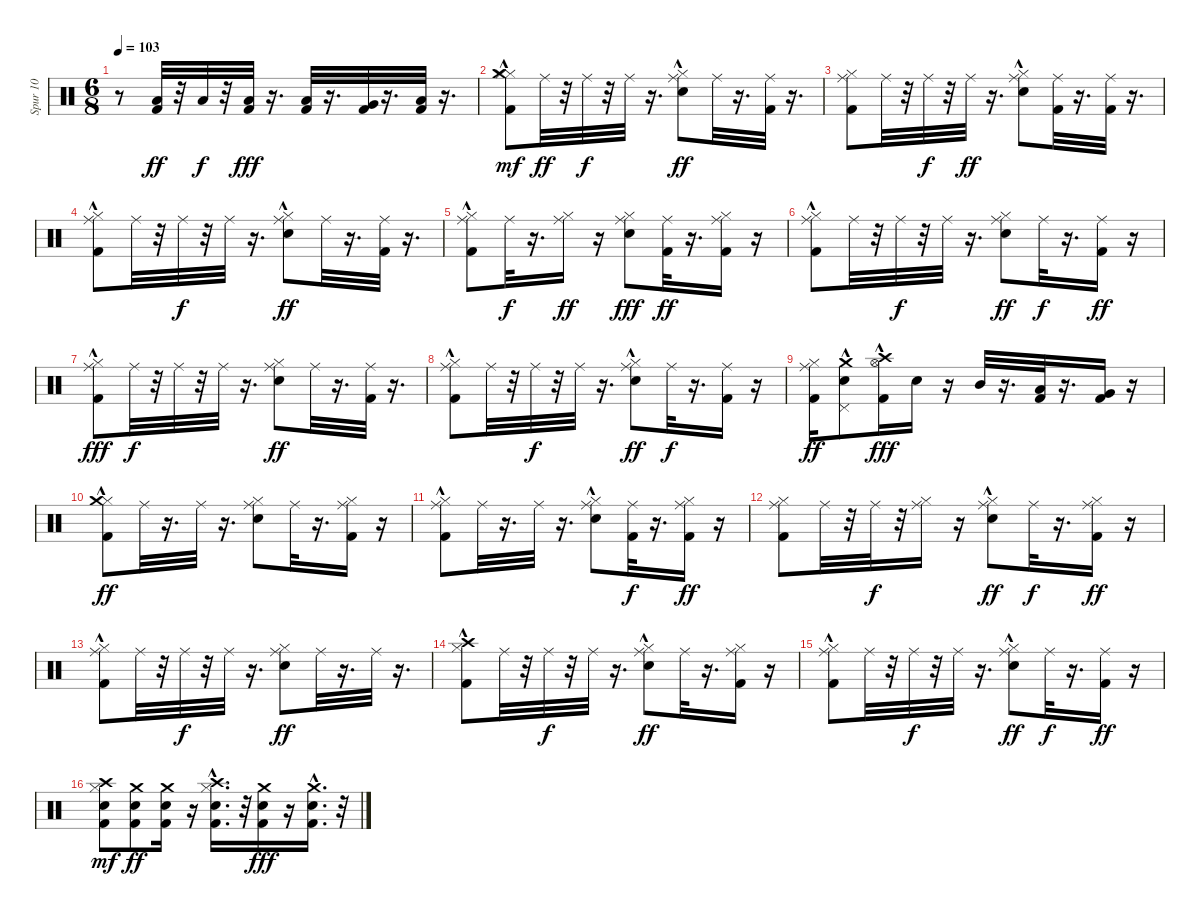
\track ("Spur 10" "Spur 10") {instrument percussion}
\staff {score}
\articulation defaults
\ts (6 8)
\tempo 103
\clef neutral
\ks c
r.8{dy ff} ("Kick (hit) 2" "Low Tom (hit)").32 r.32 "Low Tom (hit)".32{dy f} r.32 ("Kick (hit) 2" "Low Tom (hit)").32{dy fff} r.16{d} ("Kick (hit) 2" "Low Tom (hit)").32 r.16{d} ("Kick (hit) 2" "Very Low Tom (hit)").32 r.16{d} ("Kick (hit) 2" "Low Floor Tom (hit)").32 r.16{d} |
("Kick (hit) 2"{hac} "Hi-Hat (closed)" "Hi-Hat (closed)" "Crash medium (hit)").8{dy mf} "Ride (middle)".32{dy ff} r.32 "Ride (middle)".32{dy f} r.32 "Ride (middle)".32 r.16{d} ("Snare (hit) 2"{hac} "Hi-Hat (closed)" "Ride (middle)").8{dy ff} "Ride (middle)".32 r.16{d} ("Kick (hit) 2" "Ride (middle)").32 r.16{d} |
("Kick (hit) 2" "Hi-Hat (closed)" "Ride (middle)").8 "Ride (middle)".32 r.32 "Ride (middle)".32{dy f} r.32 "Ride (middle)".32{dy ff} r.16{d} ("Snare (hit) 2"{hac} "Hi-Hat (closed)" "Ride (middle)").8 ("Kick (hit) 2" "Ride (middle)").32 r.16{d} ("Kick (hit) 2" "Ride (middle)").32 r.16{d} |
("Kick (hit) 2"{hac} "Hi-Hat (closed)"{hac} "Ride (middle)").8 "Ride (middle)".32 r.32 "Ride (middle)".32{dy f} r.32 "Ride (middle)".32 r.16{d} ("Snare (hit) 2" "Hi-Hat (closed)"{hac} "Ride (middle)").8{dy ff} "Ride (middle)".32 r.16{d} ("Kick (hit) 2" "Ride (middle)").32 r.16{d} |
("Kick (hit) 2"{hac} "Hi-Hat (closed)" "Ride (middle)").8 "Ride (middle)".32{dy f} r.16{d} ("Hi-Hat (closed)" "Ride (middle)").16{dy ff} r.16 ("Snare (hit) 2" "Hi-Hat (closed)" "Ride (middle)").8{dy fff} ("Kick (hit) 2" "Ride (middle)").32{dy ff} r.16{d} ("Kick (hit) 2" "Hi-Hat (closed)" "Ride (middle)").16 r.16 |
("Kick (hit) 2"{hac} "Hi-Hat (closed)" "Ride (middle)").8 "Ride (middle)".32 r.32 "Ride (middle)".32{dy f} r.32 "Ride (middle)".32 r.16{d} ("Snare (hit) 2" "Hi-Hat (closed)" "Ride (middle)").8{dy ff} "Ride (middle)".32{dy f} r.16{d} ("Kick (hit) 2" "Ride (middle)").16{dy ff} r.16 |
("Kick (hit) 2"{hac} "Hi-Hat (closed)"{hac} "Ride (middle)").8{dy fff} "Ride (middle)".32{dy f} r.32 "Ride (middle)".32 r.32 "Ride (middle)".32 r.16{d} ("Snare (hit) 2" "Hi-Hat (closed)" "Ride (middle)").8{dy ff} "Ride (middle)".32 r.16{d} ("Kick (hit) 2" "Ride (middle)").32 r.16{d} |
("Kick (hit) 2"{hac} "Hi-Hat (closed)"{hac} "Ride (middle)").8 "Ride (middle)".32 r.32 "Ride (middle)".32{dy f} r.32 "Ride (middle)".32 r.16{d} ("Snare (hit) 2"{hac} "Hi-Hat (closed)" "Ride (middle)").8{dy ff} "Ride (middle)".32{dy f} r.16{d} ("Kick (hit) 2" "Ride (middle)").16 r.16 |
("Kick (hit) 2" "Hi-Hat (closed)" "Ride (middle)").16{dy ff} ("Snare (hit) 2" "Pedal Hi-Hat (hit)" "Crash medium (hit)"{hac}).8 ("Kick (hit) 2"{hac} "Hi-Hat (open)" "Crash high (hit)"{hac}).16{dy fff} "Snare (hit) 2".16 r.16 "Mid Tom (hit)".32 r.16{d} ("Kick (hit) 2" "Low Tom (hit)").32 r.16{d} ("Kick (hit) 2" "Very Low Tom (hit)").16 r.16 |
("Kick (hit) 2"{hac} "Hi-Hat (closed)" "Crash medium (hit)").8{dy ff} "Ride (middle)".32 r.16{d} "Ride (middle)".32 r.16{d} ("Snare (hit) 2" "Hi-Hat (closed)" "Ride (middle)").8 "Ride (middle)".32 r.16{d} ("Kick (hit) 2" "Hi-Hat (closed)" "Ride (middle)").16 r.16 |
("Kick (hit) 2"{hac} "Hi-Hat (closed)" "Ride (middle)").8 "Ride (middle)".32 r.16{d} "Ride (middle)".32 r.16{d} ("Snare (hit) 2"{hac} "Hi-Hat (closed)" "Ride (middle)").8 ("Kick (hit) 2" "Ride (middle)").32{dy f} r.16{d} ("Kick (hit) 2" "Hi-Hat (closed)" "Ride (middle)").16{dy ff} r.16 |
("Kick (hit) 2" "Hi-Hat (closed)" "Ride (middle)").8 "Ride (middle)".32 r.32 "Ride (middle)".32{dy f} r.32 ("Hi-Hat (closed)" "Ride (middle)").16 r.16 ("Snare (hit) 2"{hac} "Hi-Hat (closed)" "Ride (middle)").8{dy ff} "Ride (middle)".32{dy f} r.16{d} ("Kick (hit) 2" "Hi-Hat (closed)" "Ride (middle)").16{dy ff} r.16 |
("Kick (hit) 2"{hac} "Hi-Hat (closed)" "Ride (middle)").8 "Ride (middle)".32 r.32 "Ride (middle)".32{dy f} r.32 "Ride (middle)".32 r.16{d} ("Snare (hit) 2" "Hi-Hat (closed)" "Ride (middle)").8{dy ff} "Ride (middle)".32 r.16{d} "Ride (middle)".32 r.16{d} |
("Kick (hit) 2"{hac} "Hi-Hat (closed)"{hac} "Crash high (hit)").8 "Ride (middle)".32 r.32 "Ride (middle)".32{dy f} r.32 "Ride (middle)".32 r.16{d} ("Snare (hit) 2" "Hi-Hat (closed)"{hac} "Ride (middle)").8{dy ff} "Ride (middle)".32 r.16{d} ("Kick (hit) 2" "Hi-Hat (closed)" "Ride (middle)").16 r.16 |
("Kick (hit) 2"{hac} "Hi-Hat (closed)" "Ride (middle)").8 "Ride (middle)".32 r.32 "Ride (middle)".32{dy f} r.32 "Ride (middle)".32 r.16{d} ("Snare (hit) 2" "Hi-Hat (closed)"{hac} "Ride (middle)").8{dy ff} "Ride (middle)".32{dy f} r.16{d} ("Kick (hit) 2" "Ride (middle)").16{dy ff} r.16 |
("Kick (hit) 2" "Snare (hit) 2" "Hi-Hat (closed)" "Crash high (hit)").8{dy mf} ("Kick (hit) 2" "Snare (hit) 2" "Crash medium (hit)").8{dy ff} ("Kick (hit) 2" "Snare (hit) 2" "Crash medium (hit)").16 r.16 ("Kick (hit) 2" "Snare (hit) 2" "Hi-Hat (closed)"{hac} "Crash high (hit)"{hac}).16{d} r.32 ("Kick (hit) 2" "Snare (hit) 2" "Crash medium (hit)").16{dy fff} r.16 ("Kick (hit) 2" "Snare (hit) 2" "Crash medium (hit)"{hac}).16{d} r.32
